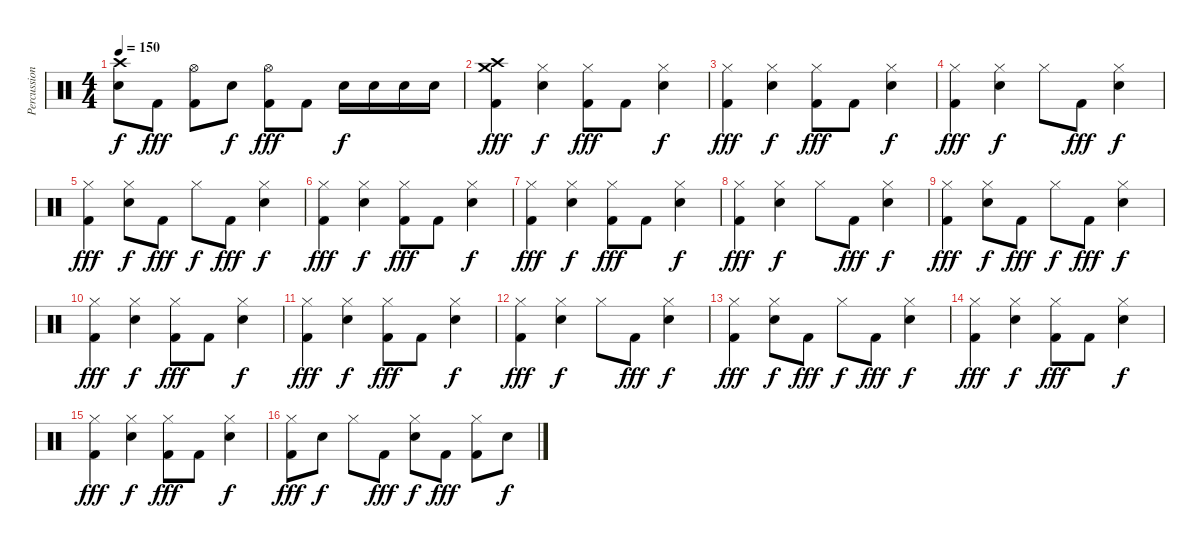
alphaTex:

\track ("Percussion" "Percussion") {instrument percussion}
\staff {score}
\articulation defaults
\ts (4 4)
\tempo 150
\clef neutral
\ks c
("Crash high (hit)" "Electric Snare (hit)").8{dy f} "Kick (hit) 2".8{dy fff} ("Hi-Hat (open)" "Kick (hit) 2").8 "Electric Snare (hit)".8{dy f} ("Hi-Hat (open)" "Kick (hit) 2").8{dy fff} "Kick (hit) 2".8 "Electric Snare (hit)".16{dy f} "Electric Snare (hit)".16 "Electric Snare (hit)".16 "Electric Snare (hit)".16 |
("Crash medium (hit)" "Crash high (hit)" "Kick (hit) 2").4{dy fff} ("Hi-Hat (closed)" "Electric Snare (hit)").4{dy f} ("Hi-Hat (closed)" "Kick (hit) 2").8{dy fff} "Kick (hit) 2".8 ("Hi-Hat (closed)" "Electric Snare (hit)").4{dy f} |
("Hi-Hat (closed)" "Kick (hit) 2").4{dy fff} ("Hi-Hat (closed)" "Electric Snare (hit)").4{dy f} ("Hi-Hat (closed)" "Kick (hit) 2").8{dy fff} "Kick (hit) 2".8 ("Hi-Hat (closed)" "Electric Snare (hit)").4{dy f} |
("Hi-Hat (closed)" "Kick (hit) 2").4{dy fff} ("Hi-Hat (closed)" "Electric Snare (hit)").4{dy f} "Hi-Hat (closed)".8 "Kick (hit) 2".8{dy fff} ("Hi-Hat (closed)" "Electric Snare (hit)").4{dy f} |
("Hi-Hat (closed)" "Kick (hit) 2").4{dy fff} ("Hi-Hat (closed)" "Electric Snare (hit)").8{dy f} "Kick (hit) 2".8{dy fff} "Hi-Hat (closed)".8{dy f} "Kick (hit) 2".8{dy fff} ("Hi-Hat (closed)" "Electric Snare (hit)").4{dy f} |
("Hi-Hat (closed)" "Kick (hit) 2").4{dy fff} ("Hi-Hat (closed)" "Electric Snare (hit)").4{dy f} ("Hi-Hat (closed)" "Kick (hit) 2").8{dy fff} "Kick (hit) 2".8 ("Hi-Hat (closed)" "Electric Snare (hit)").4{dy f} |
("Hi-Hat (closed)" "Kick (hit) 2").4{dy fff} ("Hi-Hat (closed)" "Electric Snare (hit)").4{dy f} ("Hi-Hat (closed)" "Kick (hit) 2").8{dy fff} "Kick (hit) 2".8 ("Hi-Hat (closed)" "Electric Snare (hit)").4{dy f} |
("Hi-Hat (closed)" "Kick (hit) 2").4{dy fff} ("Hi-Hat (closed)" "Electric Snare (hit)").4{dy f} "Hi-Hat (closed)".8 "Kick (hit) 2".8{dy fff} ("Hi-Hat (closed)" "Electric Snare (hit)").4{dy f} |
("Hi-Hat (closed)" "Kick (hit) 2").4{dy fff} ("Hi-Hat (closed)" "Electric Snare (hit)").8{dy f} "Kick (hit) 2".8{dy fff} "Hi-Hat (closed)".8{dy f} "Kick (hit) 2".8{dy fff} ("Hi-Hat (closed)" "Electric Snare (hit)").4{dy f} |
("Hi-Hat (closed)" "Kick (hit) 2").4{dy fff} ("Hi-Hat (closed)" "Electric Snare (hit)").4{dy f} ("Hi-Hat (closed)" "Kick (hit) 2").8{dy fff} "Kick (hit) 2".8 ("Hi-Hat (closed)" "Electric Snare (hit)").4{dy f} |
("Hi-Hat (closed)" "Kick (hit) 2").4{dy fff} ("Hi-Hat (closed)" "Electric Snare (hit)").4{dy f} ("Hi-Hat (closed)" "Kick (hit) 2").8{dy fff} "Kick (hit) 2".8 ("Hi-Hat (closed)" "Electric Snare (hit)").4{dy f} |
("Hi-Hat (closed)" "Kick (hit) 2").4{dy fff} ("Hi-Hat (closed)" "Electric Snare (hit)").4{dy f} "Hi-Hat (closed)".8 "Kick (hit) 2".8{dy fff} ("Hi-Hat (closed)" "Electric Snare (hit)").4{dy f} |
("Hi-Hat (closed)" "Kick (hit) 2").4{dy fff} ("Hi-Hat (closed)" "Electric Snare (hit)").8{dy f} "Kick (hit) 2".8{dy fff} "Hi-Hat (closed)".8{dy f} "Kick (hit) 2".8{dy fff} ("Hi-Hat (closed)" "Electric Snare (hit)").4{dy f} |
("Hi-Hat (closed)" "Kick (hit) 2").4{dy fff} ("Hi-Hat (closed)" "Electric Snare (hit)").4{dy f} ("Hi-Hat (closed)" "Kick (hit) 2").8{dy fff} "Kick (hit) 2".8 ("Hi-Hat (closed)" "Electric Snare (hit)").4{dy f} |
("Hi-Hat (closed)" "Kick (hit) 2").4{dy fff} ("Hi-Hat (closed)" "Electric Snare (hit)").4{dy f} ("Hi-Hat (closed)" "Kick (hit) 2").8{dy fff} "Kick (hit) 2".8 ("Hi-Hat (closed)" "Electric Snare (hit)").4{dy f} |
("Hi-Hat (closed)" "Kick (hit) 2").8{dy fff} "Electric Snare (hit)".8{dy f} "Hi-Hat (closed)".8 "Kick (hit) 2".8{dy fff} ("Hi-Hat (closed)" "Electric Snare (hit)").8{dy f} "Kick (hit) 2".8{dy fff} ("Hi-Hat (closed)" "Kick (hit) 2").8 "Electric Snare (hit)".8{dy f}
